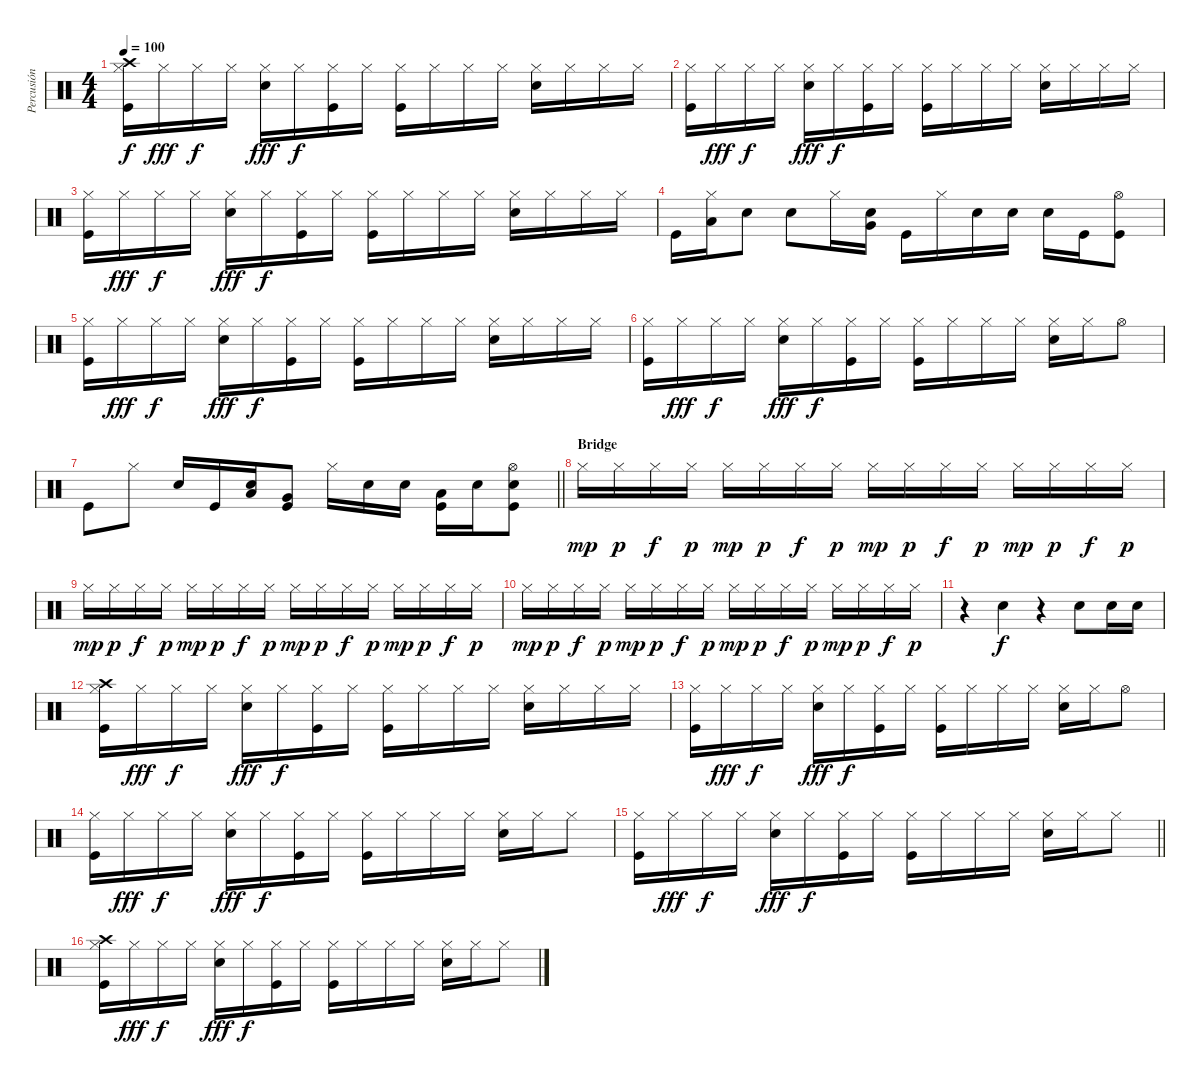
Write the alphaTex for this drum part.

\track ("Percusión" "Percusión") {instrument percussion}
\staff {score}
\articulation defaults
\ts (4 4)
\tempo 100
\clef neutral
\ks c
("Crash high (hit)" "Hi-Hat (closed)" "Kick (hit)").16{dy f} "Hi-Hat (closed)".16{dy fff} "Hi-Hat (closed)".16{dy f} "Hi-Hat (closed)".16 ("Snare (hit) 2" "Hi-Hat (closed)").16{dy fff} "Hi-Hat (closed)".16{dy f} ("Hi-Hat (closed)" "Kick (hit)").16 "Hi-Hat (closed)".16 ("Kick (hit)" "Hi-Hat (closed)").16 "Hi-Hat (closed)".16 "Hi-Hat (closed)".16 "Hi-Hat (closed)".16 ("Snare (hit) 2" "Hi-Hat (closed)").16 "Hi-Hat (closed)".16 "Hi-Hat (closed)".16 "Hi-Hat (closed)".16 |
("Hi-Hat (closed)" "Kick (hit)").16 "Hi-Hat (closed)".16{dy fff} "Hi-Hat (closed)".16{dy f} "Hi-Hat (closed)".16 ("Snare (hit) 2" "Hi-Hat (closed)").16{dy fff} "Hi-Hat (closed)".16{dy f} ("Hi-Hat (closed)" "Kick (hit)").16 "Hi-Hat (closed)".16 ("Kick (hit)" "Hi-Hat (closed)").16 "Hi-Hat (closed)".16 "Hi-Hat (closed)".16 "Hi-Hat (closed)".16 ("Snare (hit) 2" "Hi-Hat (closed)").16 "Hi-Hat (closed)".16 "Hi-Hat (closed)".16 "Hi-Hat (closed)".16 |
("Hi-Hat (closed)" "Kick (hit)").16 "Hi-Hat (closed)".16{dy fff} "Hi-Hat (closed)".16{dy f} "Hi-Hat (closed)".16 ("Snare (hit) 2" "Hi-Hat (closed)").16{dy fff} "Hi-Hat (closed)".16{dy f} ("Hi-Hat (closed)" "Kick (hit)").16 "Hi-Hat (closed)".16 ("Kick (hit)" "Hi-Hat (closed)").16 "Hi-Hat (closed)".16 "Hi-Hat (closed)".16 "Hi-Hat (closed)".16 ("Snare (hit) 2" "Hi-Hat (closed)").16 "Hi-Hat (closed)".16 "Hi-Hat (closed)".16 "Hi-Hat (closed)".16 |
"Kick (hit)".16 ("Low Tom (hit)" "Hi-Hat (closed)").16 "Snare (hit) 2".8 "Snare (hit) 2".8 "Hi-Hat (closed)".16 ("Very Low Tom (hit)" "Snare (hit) 2").16 "Kick (hit)".16 "Hi-Hat (closed)".16 "Snare (hit) 2".16 "Snare (hit) 2".16 "Electric Snare (hit)".16 "Kick (hit)".16 ("Hi-Hat (open)" "Kick (hit)").8 |
("Hi-Hat (closed)" "Kick (hit)").16 "Hi-Hat (closed)".16{dy fff} "Hi-Hat (closed)".16{dy f} "Hi-Hat (closed)".16 ("Snare (hit) 2" "Hi-Hat (closed)").16{dy fff} "Hi-Hat (closed)".16{dy f} ("Hi-Hat (closed)" "Kick (hit)").16 "Hi-Hat (closed)".16 ("Kick (hit)" "Hi-Hat (closed)").16 "Hi-Hat (closed)".16 "Hi-Hat (closed)".16 "Hi-Hat (closed)".16 ("Snare (hit) 2" "Hi-Hat (closed)").16 "Hi-Hat (closed)".16 "Hi-Hat (closed)".16 "Hi-Hat (closed)".16 |
("Hi-Hat (closed)" "Kick (hit)").16 "Hi-Hat (closed)".16{dy fff} "Hi-Hat (closed)".16{dy f} "Hi-Hat (closed)".16 ("Snare (hit) 2" "Hi-Hat (closed)").16{dy fff} "Hi-Hat (closed)".16{dy f} ("Hi-Hat (closed)" "Kick (hit)").16 "Hi-Hat (closed)".16 ("Kick (hit)" "Hi-Hat (closed)").16 "Hi-Hat (closed)".16 "Hi-Hat (closed)".16 "Hi-Hat (closed)".16 ("Snare (hit) 2" "Hi-Hat (closed)").16 "Hi-Hat (closed)".16 "Hi-Hat (open)".8 |
\barLineRight lightlight "Kick (hit)".8 "Hi-Hat (closed)".8 "Snare (hit) 2".16 "Kick (hit)".16
("Low Tom (hit)" "Electric Snare (hit)").16 ("Very Low Tom (hit)" "Kick (hit)").8 "Hi-Hat (closed)".16 "Snare (hit) 2".16 "Electric Snare (hit)".16 ("Low Floor Tom (hit)" "Kick (hit)").16 "Electric Snare (hit)".16 ("Hi-Hat (open)" "Snare (hit) 2" "Kick (hit)").8 |
\section ("" "Bridge")
"Hi-Hat (closed)".16{dy mp} "Hi-Hat (closed)".16{dy p} "Hi-Hat (closed)".16{dy f} "Hi-Hat (closed)".16{dy p} "Hi-Hat (closed)".16{dy mp} "Hi-Hat (closed)".16{dy p} "Hi-Hat (closed)".16{dy f} "Hi-Hat (closed)".16{dy p} "Hi-Hat (closed)".16{dy mp} "Hi-Hat (closed)".16{dy p} "Hi-Hat (closed)".16{dy f} "Hi-Hat (closed)".16{dy p} "Hi-Hat (closed)".16{dy mp} "Hi-Hat (closed)".16{dy p} "Hi-Hat (closed)".16{dy f} "Hi-Hat (closed)".16{dy p} |
"Hi-Hat (closed)".16{dy mp} "Hi-Hat (closed)".16{dy p} "Hi-Hat (closed)".16{dy f} "Hi-Hat (closed)".16{dy p} "Hi-Hat (closed)".16{dy mp} "Hi-Hat (closed)".16{dy p} "Hi-Hat (closed)".16{dy f} "Hi-Hat (closed)".16{dy p} "Hi-Hat (closed)".16{dy mp} "Hi-Hat (closed)".16{dy p} "Hi-Hat (closed)".16{dy f} "Hi-Hat (closed)".16{dy p} "Hi-Hat (closed)".16{dy mp} "Hi-Hat (closed)".16{dy p} "Hi-Hat (closed)".16{dy f} "Hi-Hat (closed)".16{dy p} |
"Hi-Hat (closed)".16{dy mp} "Hi-Hat (closed)".16{dy p} "Hi-Hat (closed)".16{dy f} "Hi-Hat (closed)".16{dy p} "Hi-Hat (closed)".16{dy mp} "Hi-Hat (closed)".16{dy p} "Hi-Hat (closed)".16{dy f} "Hi-Hat (closed)".16{dy p} "Hi-Hat (closed)".16{dy mp} "Hi-Hat (closed)".16{dy p} "Hi-Hat (closed)".16{dy f} "Hi-Hat (closed)".16{dy p} "Hi-Hat (closed)".16{dy mp} "Hi-Hat (closed)".16{dy p} "Hi-Hat (closed)".16{dy f} "Hi-Hat (closed)".16{dy p} |
r.4 "Electric Snare (hit)".4{dy f} r.4 "Electric Snare (hit)".8 "Snare (hit) 2".16 "Snare (hit) 2".16 |
("Crash high (hit)" "Hi-Hat (closed)" "Kick (hit)").16 "Hi-Hat (closed)".16{dy fff} "Hi-Hat (closed)".16{dy f} "Hi-Hat (closed)".16 ("Snare (hit) 2" "Hi-Hat (closed)").16{dy fff} "Hi-Hat (closed)".16{dy f} ("Hi-Hat (closed)" "Kick (hit)").16 "Hi-Hat (closed)".16 ("Kick (hit)" "Hi-Hat (closed)").16 "Hi-Hat (closed)".16 "Hi-Hat (closed)".16 "Hi-Hat (closed)".16 ("Snare (hit) 2" "Hi-Hat (closed)").16 "Hi-Hat (closed)".16 "Hi-Hat (closed)".16 "Hi-Hat (closed)".16 |
("Hi-Hat (closed)" "Kick (hit)").16 "Hi-Hat (closed)".16{dy fff} "Hi-Hat (closed)".16{dy f} "Hi-Hat (closed)".16 ("Snare (hit) 2" "Hi-Hat (closed)").16{dy fff} "Hi-Hat (closed)".16{dy f} ("Hi-Hat (closed)" "Kick (hit)").16 "Hi-Hat (closed)".16 ("Kick (hit)" "Hi-Hat (closed)").16 "Hi-Hat (closed)".16 "Hi-Hat (closed)".16 "Hi-Hat (closed)".16 ("Snare (hit) 2" "Hi-Hat (closed)").16 "Hi-Hat (closed)".16 "Hi-Hat (open)".8 |
("Hi-Hat (closed)" "Kick (hit)").16 "Hi-Hat (closed)".16{dy fff} "Hi-Hat (closed)".16{dy f} "Hi-Hat (closed)".16 ("Snare (hit) 2" "Hi-Hat (closed)").16{dy fff} "Hi-Hat (closed)".16{dy f} ("Hi-Hat (closed)" "Kick (hit)").16 "Hi-Hat (closed)".16 ("Kick (hit)" "Hi-Hat (closed)").16 "Hi-Hat (closed)".16 "Hi-Hat (closed)".16 "Hi-Hat (closed)".16 ("Snare (hit) 2" "Hi-Hat (closed)").16 "Hi-Hat (closed)".16 "Hi-Hat (closed)".8 |
\barLineRight lightlight
("Hi-Hat (closed)" "Kick (hit)").16 "Hi-Hat (closed)".16{dy fff} "Hi-Hat (closed)".16{dy f} "Hi-Hat (closed)".16 ("Snare (hit) 2" "Hi-Hat (closed)").16{dy fff} "Hi-Hat (closed)".16{dy f} ("Hi-Hat (closed)" "Kick (hit)").16 "Hi-Hat (closed)".16 ("Kick (hit)" "Hi-Hat (closed)").16 "Hi-Hat (closed)".16 "Hi-Hat (closed)".16 "Hi-Hat (closed)".16 ("Snare (hit) 2" "Hi-Hat (closed)").16 "Hi-Hat (closed)".16 "Hi-Hat (closed)".8 |
("Crash high (hit)" "Hi-Hat (closed)" "Kick (hit)").16 "Hi-Hat (closed)".16{dy fff} "Hi-Hat (closed)".16{dy f} "Hi-Hat (closed)".16 ("Snare (hit) 2" "Hi-Hat (closed)").16{dy fff} "Hi-Hat (closed)".16{dy f} ("Hi-Hat (closed)" "Kick (hit)").16 "Hi-Hat (closed)".16 ("Kick (hit)" "Hi-Hat (closed)").16 "Hi-Hat (closed)".16 "Hi-Hat (closed)".16 "Hi-Hat (closed)".16 ("Snare (hit) 2" "Hi-Hat (closed)").16 "Hi-Hat (closed)".16 "Hi-Hat (closed)".8
